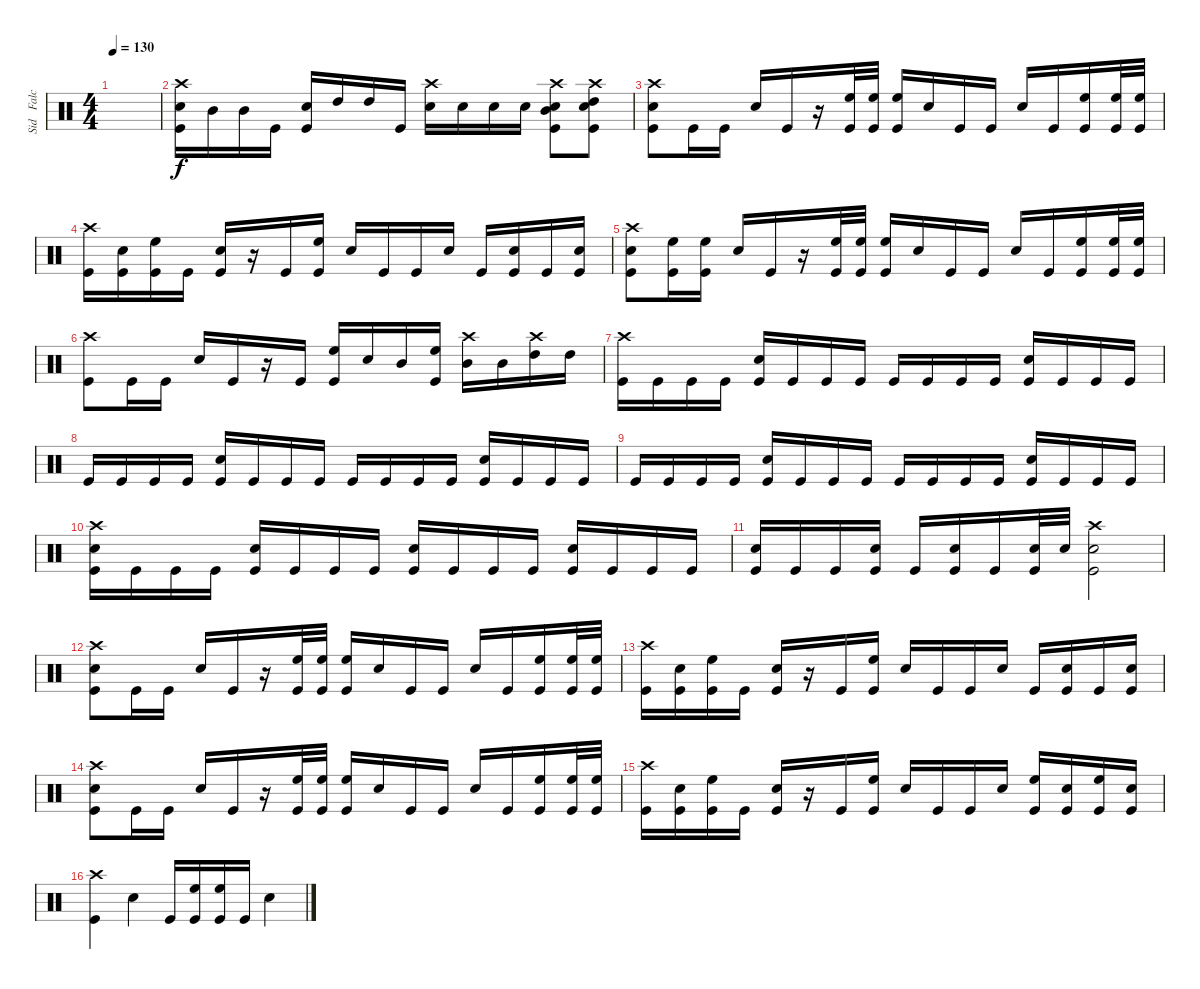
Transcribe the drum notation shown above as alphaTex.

\track ("Sid   Falck  - Drums" "Sid   Falc") {instrument percussion}
\staff {score}
\articulation defaults
\ts (4 4)
\tempo 130
\clef neutral
\ks c
|
("Crash high (hit)" "Electric Snare (hit)" "Kick (hit)").16 "Mid Tom (hit)".16 "Mid Tom (hit)".16 "Kick (hit)".16 ("Electric Snare (hit)" "Kick (hit)").16 "High Tom (hit)".16 "High Tom (hit)".16 "Kick (hit)".16 ("Crash high (hit)" "Electric Snare (hit)").16 "Electric Snare (hit)".16 "Electric Snare (hit)".16 "Electric Snare (hit)".16 ("Crash high (hit)" "Mid Tom (hit)" "Electric Snare (hit)" "Kick (hit)").8 ("Crash high (hit)" "High Tom (hit)" "Electric Snare (hit)" "Kick (hit)").8 |
("Crash high (hit)" "Electric Snare (hit)" "Kick (hit)").8 "Kick (hit)".16 "Kick (hit)".16 "Electric Snare (hit)".16 "Kick (hit)".16 r.16 ("High Floor Tom (hit)" "Kick (hit)").32 ("High Floor Tom (hit)" "Kick (hit)").32 ("High Floor Tom (hit)" "Kick (hit)").16 "Electric Snare (hit)".16 "Kick (hit)".16 "Kick (hit)".16 "Electric Snare (hit)".16 "Kick (hit)".16 ("High Floor Tom (hit)" "Kick (hit)").16 ("High Floor Tom (hit)" "Kick (hit)").32 ("High Floor Tom (hit)" "Kick (hit)").32 |
("Crash high (hit)" "Kick (hit)").16 ("Electric Snare (hit)" "Kick (hit)").16 ("High Floor Tom (hit)" "Kick (hit)").16 "Kick (hit)".16 ("Electric Snare (hit)" "Kick (hit)").16 r.16 "Kick (hit)".16 ("High Floor Tom (hit)" "Kick (hit)").16 "Electric Snare (hit)".16 "Kick (hit)".16 "Kick (hit)".16 "Electric Snare (hit)".16 "Kick (hit)".16 ("Electric Snare (hit)" "Kick (hit)").16 "Kick (hit)".16 ("Electric Snare (hit)" "Kick (hit)").16 |
("Crash high (hit)" "Electric Snare (hit)" "Kick (hit)").8 ("High Floor Tom (hit)" "Kick (hit)").16 ("High Floor Tom (hit)" "Kick (hit)").16 "Electric Snare (hit)".16 "Kick (hit)".16 r.16 ("High Floor Tom (hit)" "Kick (hit)").32 ("High Floor Tom (hit)" "Kick (hit)").32 ("High Floor Tom (hit)" "Kick (hit)").16 "Electric Snare (hit)".16 "Kick (hit)".16 "Kick (hit)".16 "Electric Snare (hit)".16 "Kick (hit)".16 ("High Floor Tom (hit)" "Kick (hit)").16 ("High Floor Tom (hit)" "Kick (hit)").32 ("High Floor Tom (hit)" "Kick (hit)").32 |
("Crash high (hit)" "Kick (hit)").8 "Kick (hit)".16 "Kick (hit)".16 "Electric Snare (hit)".16 "Kick (hit)".16 r.16 "Kick (hit)".16 ("High Floor Tom (hit)" "Kick (hit)").16 "Electric Snare (hit)".16 "Mid Tom (hit)".16 ("High Floor Tom (hit)" "Kick (hit)").16 ("Crash high (hit)" "Mid Tom (hit)").16 "Mid Tom (hit)".16 ("Crash high (hit)" "High Tom (hit)").16 "High Tom (hit)".16 |
("Crash high (hit)" "Kick (hit)").16 "Kick (hit)".16 "Kick (hit)".16 "Kick (hit)".16 ("Electric Snare (hit)" "Kick (hit)").16 "Kick (hit)".16 "Kick (hit)".16 "Kick (hit)".16 "Kick (hit)".16 "Kick (hit)".16 "Kick (hit)".16 "Kick (hit)".16 ("Electric Snare (hit)" "Kick (hit)").16 "Kick (hit)".16 "Kick (hit)".16 "Kick (hit)".16 |
"Kick (hit)".16 "Kick (hit)".16 "Kick (hit)".16 "Kick (hit)".16 ("Electric Snare (hit)" "Kick (hit)").16 "Kick (hit)".16 "Kick (hit)".16 "Kick (hit)".16 "Kick (hit)".16 "Kick (hit)".16 "Kick (hit)".16 "Kick (hit)".16 ("Electric Snare (hit)" "Kick (hit)").16 "Kick (hit)".16 "Kick (hit)".16 "Kick (hit)".16 |
"Kick (hit)".16 "Kick (hit)".16 "Kick (hit)".16 "Kick (hit)".16 ("Electric Snare (hit)" "Kick (hit)").16 "Kick (hit)".16 "Kick (hit)".16 "Kick (hit)".16 "Kick (hit)".16 "Kick (hit)".16 "Kick (hit)".16 "Kick (hit)".16 ("Electric Snare (hit)" "Kick (hit)").16 "Kick (hit)".16 "Kick (hit)".16 "Kick (hit)".16 |
("Crash high (hit)" "Electric Snare (hit)" "Kick (hit)").16 "Kick (hit)".16 "Kick (hit)".16 "Kick (hit)".16 ("Electric Snare (hit)" "Kick (hit)").16 "Kick (hit)".16 "Kick (hit)".16 "Kick (hit)".16 ("Electric Snare (hit)" "Kick (hit)").16 "Kick (hit)".16 "Kick (hit)".16 "Kick (hit)".16 ("Electric Snare (hit)" "Kick (hit)").16 "Kick (hit)".16 "Kick (hit)".16 "Kick (hit)".16 |
("Electric Snare (hit)" "Kick (hit)").16 "Kick (hit)".16 "Kick (hit)".16 ("Electric Snare (hit)" "Kick (hit)").16 "Kick (hit)".16 ("Electric Snare (hit)" "Kick (hit)").16 "Kick (hit)".16 ("Electric Snare (hit)" "Kick (hit)").32 "Electric Snare (hit)".32 ("Crash high (hit)" "Electric Snare (hit)" "Kick (hit)").2 |
("Crash high (hit)" "Electric Snare (hit)" "Kick (hit)").8 "Kick (hit)".16 "Kick (hit)".16 "Electric Snare (hit)".16 "Kick (hit)".16 r.16 ("High Floor Tom (hit)" "Kick (hit)").32 ("High Floor Tom (hit)" "Kick (hit)").32 ("High Floor Tom (hit)" "Kick (hit)").16 "Electric Snare (hit)".16 "Kick (hit)".16 "Kick (hit)".16 "Electric Snare (hit)".16 "Kick (hit)".16 ("High Floor Tom (hit)" "Kick (hit)").16 ("High Floor Tom (hit)" "Kick (hit)").32 ("High Floor Tom (hit)" "Kick (hit)").32 |
("Crash high (hit)" "Kick (hit)").16 ("Electric Snare (hit)" "Kick (hit)").16 ("High Floor Tom (hit)" "Kick (hit)").16 "Kick (hit)".16 ("Electric Snare (hit)" "Kick (hit)").16 r.16 "Kick (hit)".16 ("High Floor Tom (hit)" "Kick (hit)").16 "Electric Snare (hit)".16 "Kick (hit)".16 "Kick (hit)".16 "Electric Snare (hit)".16 "Kick (hit)".16 ("Electric Snare (hit)" "Kick (hit)").16 "Kick (hit)".16 ("Electric Snare (hit)" "Kick (hit)").16 |
("Crash high (hit)" "Electric Snare (hit)" "Kick (hit)").8 "Kick (hit)".16 "Kick (hit)".16 "Electric Snare (hit)".16 "Kick (hit)".16 r.16 ("High Floor Tom (hit)" "Kick (hit)").32 ("High Floor Tom (hit)" "Kick (hit)").32 ("High Floor Tom (hit)" "Kick (hit)").16 "Electric Snare (hit)".16 "Kick (hit)".16 "Kick (hit)".16 "Electric Snare (hit)".16 "Kick (hit)".16 ("High Floor Tom (hit)" "Kick (hit)").16 ("High Floor Tom (hit)" "Kick (hit)").32 ("High Floor Tom (hit)" "Kick (hit)").32 |
("Crash high (hit)" "Kick (hit)").16 ("Electric Snare (hit)" "Kick (hit)").16 ("High Floor Tom (hit)" "Kick (hit)").16 "Kick (hit)".16 ("Electric Snare (hit)" "Kick (hit)").16 r.16 "Kick (hit)".16 ("High Floor Tom (hit)" "Kick (hit)").16 "Electric Snare (hit)".16 "Kick (hit)".16 "Kick (hit)".16 "Electric Snare (hit)".16 ("High Floor Tom (hit)" "Kick (hit)").16 ("Electric Snare (hit)" "Kick (hit)").16 ("High Floor Tom (hit)" "Kick (hit)").16 ("Electric Snare (hit)" "Kick (hit)").16 |
("Crash high (hit)" "Kick (hit)").4 "Electric Snare (hit)".4 "Kick (hit)".16 ("High Floor Tom (hit)" "Kick (hit)").16 ("High Floor Tom (hit)" "Kick (hit)").16 "Kick (hit)".16 "Electric Snare (hit)".4
